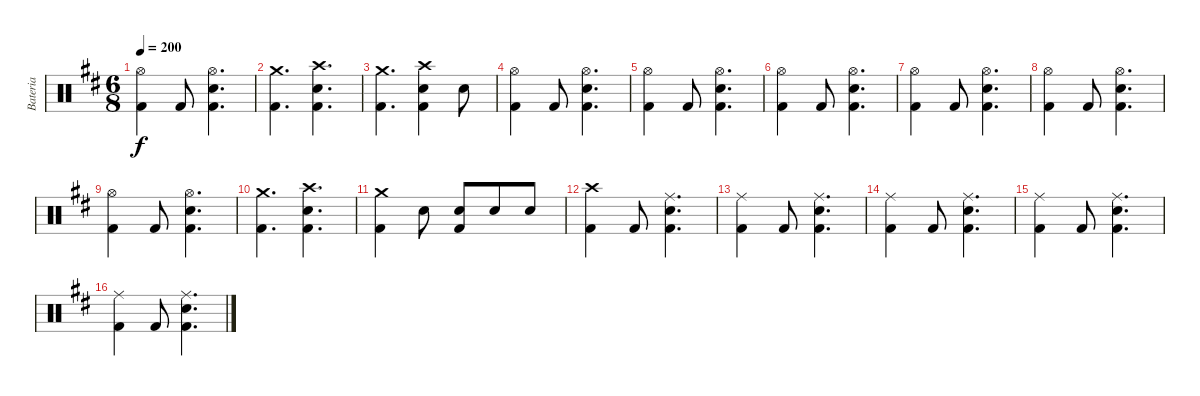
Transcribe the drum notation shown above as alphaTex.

\track ("Bateria" "Bateria") {instrument percussion}
\staff {score}
\articulation defaults
\ts (6 8)
\tempo 200
\clef neutral
\ks bminor
("Hi-Hat (open)" "Kick (hit) 2").4{dy f} "Kick (hit) 2".8 ("Hi-Hat (open)" "Electric Snare (hit)" "Kick (hit) 2").4{d} |
("Crash medium (hit)" "Kick (hit) 2").4{d} ("Crash high (hit)" "Electric Snare (hit)" "Kick (hit) 2").4{d} |
("Crash medium (hit)" "Kick (hit) 2").4{d} ("Crash high (hit)" "Electric Snare (hit)" "Kick (hit) 2").4 "Electric Snare (hit)".8 |
("Hi-Hat (open)" "Kick (hit) 2").4 "Kick (hit) 2".8 ("Hi-Hat (open)" "Electric Snare (hit)" "Kick (hit) 2").4{d} |
("Hi-Hat (open)" "Kick (hit) 2").4 "Kick (hit) 2".8 ("Hi-Hat (open)" "Electric Snare (hit)" "Kick (hit) 2").4{d} |
("Hi-Hat (open)" "Kick (hit) 2").4 "Kick (hit) 2".8 ("Hi-Hat (open)" "Electric Snare (hit)" "Kick (hit) 2").4{d} |
("Hi-Hat (open)" "Kick (hit) 2").4 "Kick (hit) 2".8 ("Hi-Hat (open)" "Electric Snare (hit)" "Kick (hit) 2").4{d} |
("Hi-Hat (open)" "Kick (hit) 2").4 "Kick (hit) 2".8 ("Hi-Hat (open)" "Electric Snare (hit)" "Kick (hit) 2").4{d} |
("Hi-Hat (open)" "Kick (hit) 2").4 "Kick (hit) 2".8 ("Hi-Hat (open)" "Electric Snare (hit)" "Kick (hit) 2").4{d} |
("Crash medium (hit)" "Kick (hit) 2").4{d} ("Crash high (hit)" "Electric Snare (hit)" "Kick (hit) 2").4{d} |
("Crash medium (hit)" "Kick (hit) 2").4 "Electric Snare (hit)".8 ("Electric Snare (hit)" "Kick (hit) 2").8 "Electric Snare (hit)".8 "Electric Snare (hit)".8 |
("Crash high (hit)" "Kick (hit) 2").4 "Kick (hit) 2".8 ("Ride (middle)" "Electric Snare (hit)" "Kick (hit) 2").4{d} |
("Ride (middle)" "Kick (hit) 2").4 "Kick (hit) 2".8 ("Ride (middle)" "Electric Snare (hit)" "Kick (hit) 2").4{d} |
("Ride (middle)" "Kick (hit) 2").4 "Kick (hit) 2".8 ("Ride (middle)" "Electric Snare (hit)" "Kick (hit) 2").4{d} |
("Ride (middle)" "Kick (hit) 2").4 "Kick (hit) 2".8 ("Ride (middle)" "Electric Snare (hit)" "Kick (hit) 2").4{d} |
("Ride (middle)" "Kick (hit) 2").4 "Kick (hit) 2".8 ("Ride (middle)" "Electric Snare (hit)" "Kick (hit) 2").4{d}
